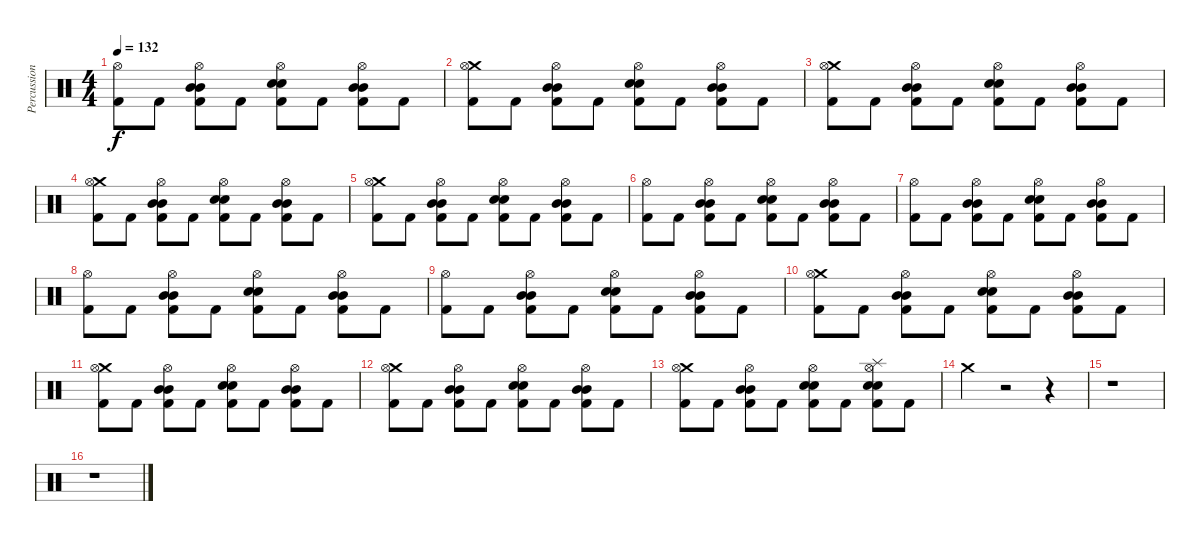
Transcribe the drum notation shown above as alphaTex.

\track ("Percussion" "Percussion") {instrument percussion}
\staff {score}
\articulation defaults
\ts (4 4)
\tempo 132
\clef neutral
\ks c
("Hi-Hat (open)" "Kick (hit) 2").8{dy f} "Kick (hit) 2".8 ("Hi-Hat (open)" "Mid Tom (hit)" "Mid Tom (hit)" "Kick (hit) 2").8 "Kick (hit) 2".8 ("Hi-Hat (open)" "Snare (hit) 2" "Snare (hit) 2" "Kick (hit) 2").8 "Kick (hit) 2".8 ("Hi-Hat (open)" "Mid Tom (hit)" "Mid Tom (hit)" "Kick (hit) 2").8 "Kick (hit) 2".8 |
("Crash medium (hit)" "Hi-Hat (open)" "Kick (hit) 2").8 "Kick (hit) 2".8 ("Hi-Hat (open)" "Mid Tom (hit)" "Mid Tom (hit)" "Kick (hit) 2").8 "Kick (hit) 2".8 ("Hi-Hat (open)" "Snare (hit) 2" "Snare (hit) 2" "Kick (hit) 2").8 "Kick (hit) 2".8 ("Hi-Hat (open)" "Mid Tom (hit)" "Mid Tom (hit)" "Kick (hit) 2").8 "Kick (hit) 2".8 |
("Crash medium (hit)" "Hi-Hat (open)" "Kick (hit) 2").8 "Kick (hit) 2".8 ("Hi-Hat (open)" "Mid Tom (hit)" "Mid Tom (hit)" "Kick (hit) 2").8 "Kick (hit) 2".8 ("Hi-Hat (open)" "Snare (hit) 2" "Snare (hit) 2" "Kick (hit) 2").8 "Kick (hit) 2".8 ("Hi-Hat (open)" "Mid Tom (hit)" "Mid Tom (hit)" "Kick (hit) 2").8 "Kick (hit) 2".8 |
("Crash medium (hit)" "Hi-Hat (open)" "Kick (hit) 2").8 "Kick (hit) 2".8 ("Hi-Hat (open)" "Mid Tom (hit)" "Mid Tom (hit)" "Kick (hit) 2").8 "Kick (hit) 2".8 ("Hi-Hat (open)" "Snare (hit) 2" "Snare (hit) 2" "Kick (hit) 2").8 "Kick (hit) 2".8 ("Hi-Hat (open)" "Mid Tom (hit)" "Mid Tom (hit)" "Kick (hit) 2").8 "Kick (hit) 2".8 |
("Crash medium (hit)" "Hi-Hat (open)" "Kick (hit) 2").8 "Kick (hit) 2".8 ("Hi-Hat (open)" "Mid Tom (hit)" "Mid Tom (hit)" "Kick (hit) 2").8 "Kick (hit) 2".8 ("Hi-Hat (open)" "Snare (hit) 2" "Snare (hit) 2" "Kick (hit) 2").8 "Kick (hit) 2".8 ("Hi-Hat (open)" "Mid Tom (hit)" "Mid Tom (hit)" "Kick (hit) 2").8 "Kick (hit) 2".8 |
("Hi-Hat (open)" "Kick (hit) 2").8 "Kick (hit) 2".8 ("Hi-Hat (open)" "Mid Tom (hit)" "Mid Tom (hit)" "Kick (hit) 2").8 "Kick (hit) 2".8 ("Hi-Hat (open)" "Snare (hit) 2" "Snare (hit) 2" "Kick (hit) 2").8 "Kick (hit) 2".8 ("Hi-Hat (open)" "Mid Tom (hit)" "Mid Tom (hit)" "Kick (hit) 2").8 "Kick (hit) 2".8 |
("Hi-Hat (open)" "Kick (hit) 2").8 "Kick (hit) 2".8 ("Hi-Hat (open)" "Mid Tom (hit)" "Mid Tom (hit)" "Kick (hit) 2").8 "Kick (hit) 2".8 ("Hi-Hat (open)" "Snare (hit) 2" "Snare (hit) 2" "Kick (hit) 2").8 "Kick (hit) 2".8 ("Hi-Hat (open)" "Mid Tom (hit)" "Mid Tom (hit)" "Kick (hit) 2").8 "Kick (hit) 2".8 |
("Hi-Hat (open)" "Kick (hit) 2").8 "Kick (hit) 2".8 ("Hi-Hat (open)" "Mid Tom (hit)" "Mid Tom (hit)" "Kick (hit) 2").8 "Kick (hit) 2".8 ("Hi-Hat (open)" "Snare (hit) 2" "Snare (hit) 2" "Kick (hit) 2").8 "Kick (hit) 2".8 ("Hi-Hat (open)" "Mid Tom (hit)" "Mid Tom (hit)" "Kick (hit) 2").8 "Kick (hit) 2".8 |
("Hi-Hat (open)" "Kick (hit) 2").8 "Kick (hit) 2".8 ("Hi-Hat (open)" "Mid Tom (hit)" "Mid Tom (hit)" "Kick (hit) 2").8 "Kick (hit) 2".8 ("Hi-Hat (open)" "Snare (hit) 2" "Snare (hit) 2" "Kick (hit) 2").8 "Kick (hit) 2".8 ("Hi-Hat (open)" "Mid Tom (hit)" "Mid Tom (hit)" "Kick (hit) 2").8 "Kick (hit) 2".8 |
("Crash medium (hit)" "Hi-Hat (open)" "Kick (hit) 2").8 "Kick (hit) 2".8 ("Hi-Hat (open)" "Mid Tom (hit)" "Mid Tom (hit)" "Kick (hit) 2").8 "Kick (hit) 2".8 ("Hi-Hat (open)" "Snare (hit) 2" "Snare (hit) 2" "Kick (hit) 2").8 "Kick (hit) 2".8 ("Hi-Hat (open)" "Mid Tom (hit)" "Mid Tom (hit)" "Kick (hit) 2").8 "Kick (hit) 2".8 |
("Crash medium (hit)" "Hi-Hat (open)" "Kick (hit) 2").8 "Kick (hit) 2".8 ("Hi-Hat (open)" "Mid Tom (hit)" "Mid Tom (hit)" "Kick (hit) 2").8 "Kick (hit) 2".8 ("Hi-Hat (open)" "Snare (hit) 2" "Snare (hit) 2" "Kick (hit) 2").8 "Kick (hit) 2".8 ("Hi-Hat (open)" "Mid Tom (hit)" "Mid Tom (hit)" "Kick (hit) 2").8 "Kick (hit) 2".8 |
("Crash medium (hit)" "Hi-Hat (open)" "Kick (hit) 2").8 "Kick (hit) 2".8 ("Hi-Hat (open)" "Mid Tom (hit)" "Mid Tom (hit)" "Kick (hit) 2").8 "Kick (hit) 2".8 ("Hi-Hat (open)" "Snare (hit) 2" "Snare (hit) 2" "Kick (hit) 2").8 "Kick (hit) 2".8 ("Hi-Hat (open)" "Mid Tom (hit)" "Mid Tom (hit)" "Kick (hit) 2").8 "Kick (hit) 2".8 |
("Crash medium (hit)" "Hi-Hat (open)" "Kick (hit) 2").8 "Kick (hit) 2".8 ("Hi-Hat (open)" "Mid Tom (hit)" "Mid Tom (hit)" "Kick (hit) 2").8 "Kick (hit) 2".8 ("Hi-Hat (open)" "Snare (hit) 2" "Snare (hit) 2" "Kick (hit) 2").8 "Kick (hit) 2".8 ("Splash (hit)" "Hi-Hat (open)" "Electric Snare (hit)" "Snare (hit) 2" "Kick (hit) 2").8 "Kick (hit) 2".8 |
"Crash medium (hit)".4 r.2 r.4 |
r.1 |
r.1
